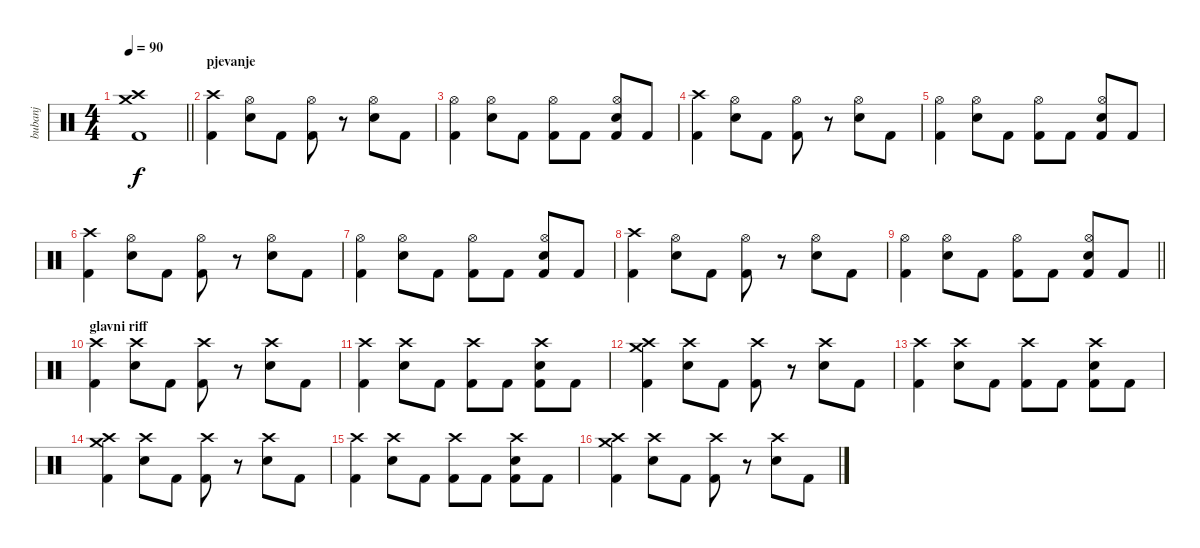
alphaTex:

\track ("bubanj" "bubanj") {instrument percussion}
\staff {score}
\articulation defaults
\ts (4 4)
\tempo 90
\clef neutral
\barLineRight lightlight
\ks c
("Crash medium (hit)" "Crash high (hit)" "Kick (hit) 2").1{dy f} |
\section ("" "pjevanje")
("Crash high (hit)" "Kick (hit) 2").4 ("Hi-Hat (open)" "Electric Snare (hit)").8 "Kick (hit) 2".8 ("Hi-Hat (open)" "Kick (hit) 2").8 r.8 ("Hi-Hat (open)" "Electric Snare (hit)").8 "Kick (hit) 2".8 |
("Hi-Hat (open)" "Kick (hit) 2").4 ("Hi-Hat (open)" "Electric Snare (hit)").8 "Kick (hit) 2".8 ("Hi-Hat (open)" "Kick (hit) 2").8 "Kick (hit) 2".8 ("Hi-Hat (open)" "Electric Snare (hit)" "Kick (hit) 2").8 "Kick (hit) 2".8 |
("Crash high (hit)" "Kick (hit) 2").4 ("Hi-Hat (open)" "Electric Snare (hit)").8 "Kick (hit) 2".8 ("Hi-Hat (open)" "Kick (hit) 2").8 r.8 ("Hi-Hat (open)" "Electric Snare (hit)").8 "Kick (hit) 2".8 |
("Hi-Hat (open)" "Kick (hit) 2").4 ("Hi-Hat (open)" "Electric Snare (hit)").8 "Kick (hit) 2".8 ("Hi-Hat (open)" "Kick (hit) 2").8 "Kick (hit) 2".8 ("Hi-Hat (open)" "Electric Snare (hit)" "Kick (hit) 2").8 "Kick (hit) 2".8 |
("Crash high (hit)" "Kick (hit) 2").4 ("Hi-Hat (open)" "Electric Snare (hit)").8 "Kick (hit) 2".8 ("Hi-Hat (open)" "Kick (hit) 2").8 r.8 ("Hi-Hat (open)" "Electric Snare (hit)").8 "Kick (hit) 2".8 |
("Hi-Hat (open)" "Kick (hit) 2").4 ("Hi-Hat (open)" "Electric Snare (hit)").8 "Kick (hit) 2".8 ("Hi-Hat (open)" "Kick (hit) 2").8 "Kick (hit) 2".8 ("Hi-Hat (open)" "Electric Snare (hit)" "Kick (hit) 2").8 "Kick (hit) 2".8 |
("Crash high (hit)" "Kick (hit) 2").4 ("Hi-Hat (open)" "Electric Snare (hit)").8 "Kick (hit) 2".8 ("Hi-Hat (open)" "Kick (hit) 2").8 r.8 ("Hi-Hat (open)" "Electric Snare (hit)").8 "Kick (hit) 2".8 |
\barLineRight lightlight
("Hi-Hat (open)" "Kick (hit) 2").4 ("Hi-Hat (open)" "Electric Snare (hit)").8 "Kick (hit) 2".8 ("Hi-Hat (open)" "Kick (hit) 2").8 "Kick (hit) 2".8 ("Hi-Hat (open)" "Electric Snare (hit)" "Kick (hit) 2").8 "Kick (hit) 2".8 |
\section ("" "glavni riff")
("Crash high (hit)" "Kick (hit) 2").4 ("Crash high (hit)" "Electric Snare (hit)").8 "Kick (hit) 2".8 ("Crash high (hit)" "Kick (hit) 2").8 r.8 ("Crash high (hit)" "Electric Snare (hit)").8 "Kick (hit) 2".8 |
("Crash high (hit)" "Kick (hit) 2").4 ("Crash high (hit)" "Electric Snare (hit)").8 "Kick (hit) 2".8 ("Crash high (hit)" "Kick (hit) 2").8 "Kick (hit) 2".8 ("Crash high (hit)" "Electric Snare (hit)" "Kick (hit) 2").8 "Kick (hit) 2".8 |
("Crash medium (hit)" "Crash high (hit)" "Kick (hit) 2").4 ("Crash high (hit)" "Electric Snare (hit)").8 "Kick (hit) 2".8 ("Crash high (hit)" "Kick (hit) 2").8 r.8 ("Crash high (hit)" "Electric Snare (hit)").8 "Kick (hit) 2".8 |
("Crash high (hit)" "Kick (hit) 2").4 ("Crash high (hit)" "Electric Snare (hit)").8 "Kick (hit) 2".8 ("Crash high (hit)" "Kick (hit) 2").8 "Kick (hit) 2".8 ("Crash high (hit)" "Electric Snare (hit)" "Kick (hit) 2").8 "Kick (hit) 2".8 |
("Crash medium (hit)" "Crash high (hit)" "Kick (hit) 2").4 ("Crash high (hit)" "Electric Snare (hit)").8 "Kick (hit) 2".8 ("Crash high (hit)" "Kick (hit) 2").8 r.8 ("Crash high (hit)" "Electric Snare (hit)").8 "Kick (hit) 2".8 |
("Crash high (hit)" "Kick (hit) 2").4 ("Crash high (hit)" "Electric Snare (hit)").8 "Kick (hit) 2".8 ("Crash high (hit)" "Kick (hit) 2").8 "Kick (hit) 2".8 ("Crash high (hit)" "Electric Snare (hit)" "Kick (hit) 2").8 "Kick (hit) 2".8 |
("Crash medium (hit)" "Crash high (hit)" "Kick (hit) 2").4 ("Crash high (hit)" "Electric Snare (hit)").8 "Kick (hit) 2".8 ("Crash high (hit)" "Kick (hit) 2").8 r.8 ("Crash high (hit)" "Electric Snare (hit)").8 "Kick (hit) 2".8
